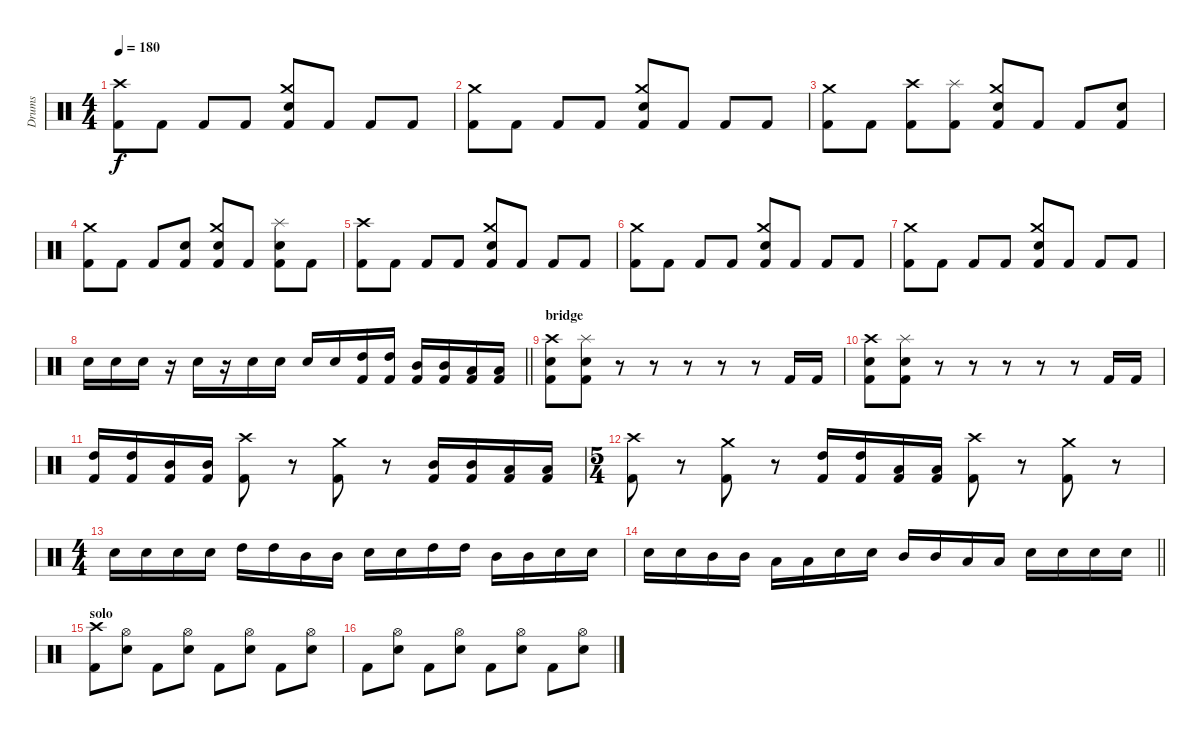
\track ("Drums" "Drums") {instrument percussion}
\staff {score}
\articulation defaults
\ts (4 4)
\tempo 180
\clef neutral
\ks c
("Crash high (hit)" "Kick (hit) 2").8{dy f} "Kick (hit) 2".8 "Kick (hit) 2".8 "Kick (hit) 2".8 ("Crash medium (hit)" "Electric Snare (hit)" "Kick (hit) 2").8 "Kick (hit) 2".8 "Kick (hit) 2".8 "Kick (hit) 2".8 |
("Crash medium (hit)" "Kick (hit) 2").8 "Kick (hit) 2".8 "Kick (hit) 2".8 "Kick (hit) 2".8 ("Crash medium (hit)" "Electric Snare (hit)" "Kick (hit) 2").8 "Kick (hit) 2".8 "Kick (hit) 2".8 "Kick (hit) 2".8 |
("Crash medium (hit)" "Kick (hit) 2").8 "Kick (hit) 2".8 ("Crash high (hit)" "Kick (hit) 2").8 ("Splash (hit)" "Kick (hit) 2").8 ("Crash medium (hit)" "Electric Snare (hit)" "Kick (hit) 2").8 "Kick (hit) 2".8 "Kick (hit) 2".8 ("Electric Snare (hit)" "Kick (hit) 2").8 |
("Crash medium (hit)" "Kick (hit) 2").8 "Kick (hit) 2".8 "Kick (hit) 2".8 ("Electric Snare (hit)" "Kick (hit) 2").8 ("Crash medium (hit)" "Electric Snare (hit)" "Kick (hit) 2").8 "Kick (hit) 2".8 ("Splash (hit)" "Electric Snare (hit)" "Kick (hit) 2").8 "Kick (hit) 2".8 |
("Crash high (hit)" "Kick (hit) 2").8 "Kick (hit) 2".8 "Kick (hit) 2".8 "Kick (hit) 2".8 ("Crash medium (hit)" "Electric Snare (hit)" "Kick (hit) 2").8 "Kick (hit) 2".8 "Kick (hit) 2".8 "Kick (hit) 2".8 |
("Crash medium (hit)" "Kick (hit) 2").8 "Kick (hit) 2".8 "Kick (hit) 2".8 "Kick (hit) 2".8 ("Crash medium (hit)" "Electric Snare (hit)" "Kick (hit) 2").8 "Kick (hit) 2".8 "Kick (hit) 2".8 "Kick (hit) 2".8 |
("Crash medium (hit)" "Kick (hit) 2").8 "Kick (hit) 2".8 "Kick (hit) 2".8 "Kick (hit) 2".8 ("Crash medium (hit)" "Electric Snare (hit)" "Kick (hit) 2").8 "Kick (hit) 2".8 "Kick (hit) 2".8 "Kick (hit) 2".8 |
\barLineRight lightlight "Electric Snare (hit)".16 "Electric Snare (hit)".16 "Electric Snare (hit)".16
r.16 "Electric Snare (hit)".16 r.16 "Electric Snare (hit)".16 "Electric Snare (hit)".16 "Electric Snare (hit)".16 "Electric Snare (hit)".16 ("High Tom (hit)" "Kick (hit) 2").16 ("High Tom (hit)" "Kick (hit) 2").16 ("Mid Tom (hit)" "Kick (hit) 2").16 ("Mid Tom (hit)" "Kick (hit) 2").16 ("Low Tom (hit)" "Kick (hit) 2").16 ("Low Tom (hit)" "Kick (hit) 2").16 |
\section ("" "bridge")
("Crash high (hit)" "Electric Snare (hit)" "Kick (hit) 2").8 ("Splash (hit)" "Electric Snare (hit)" "Kick (hit) 2").8 r.8 r.8 r.8 r.8 r.8 "Kick (hit) 2".16 "Kick (hit) 2".16 |
("Crash high (hit)" "Electric Snare (hit)" "Kick (hit) 2").8 ("Splash (hit)" "Electric Snare (hit)" "Kick (hit) 2").8 r.8 r.8 r.8 r.8 r.8 "Kick (hit) 2".16 "Kick (hit) 2".16 |
("High Tom (hit)" "Kick (hit) 2").16 ("High Tom (hit)" "Kick (hit) 2").16 ("Mid Tom (hit)" "Kick (hit) 2").16 ("Mid Tom (hit)" "Kick (hit) 2").16 ("Crash high (hit)" "Kick (hit) 2").8 r.8{volume 0} ("Crash medium (hit)" "Kick (hit) 2").8{volume 13} r.8{volume 0} ("Mid Tom (hit)" "Kick (hit) 2").16{volume 16} ("Mid Tom (hit)" "Kick (hit) 2").16 ("Low Tom (hit)" "Kick (hit) 2").16 ("Low Tom (hit)" "Kick (hit) 2").16 |
\ts (5 4)
("Crash high (hit)" "Kick (hit) 2").8 r.8{volume 0} ("Crash medium (hit)" "Kick (hit) 2").8{volume 13} r.8{volume 0} ("High Tom (hit)" "Kick (hit) 2").16{volume 16} ("High Tom (hit)" "Kick (hit) 2").16 ("Low Tom (hit)" "Kick (hit) 2").16 ("Low Tom (hit)" "Kick (hit) 2").16 ("Crash high (hit)" "Kick (hit) 2").8 r.8{volume 0} ("Crash medium (hit)" "Kick (hit) 2").8{volume 13} r.8{volume 0} |
\ts (4 4)
"Electric Snare (hit)".16{volume 16} "Electric Snare (hit)".16 "Electric Snare (hit)".16 "Electric Snare (hit)".16 "High Tom (hit)".16 "High Tom (hit)".16 "Mid Tom (hit)".16 "Mid Tom (hit)".16 "Electric Snare (hit)".16 "Electric Snare (hit)".16 "High Tom (hit)".16 "High Tom (hit)".16 "Mid Tom (hit)".16 "Mid Tom (hit)".16 "Electric Snare (hit)".16 "Electric Snare (hit)".16 |
\barLineRight lightlight "Electric Snare (hit)".16 "Electric Snare (hit)".16 "Mid Tom (hit)".16 "Mid Tom (hit)".16 "Low Tom (hit)".16 "Low Tom (hit)".16 "Electric Snare (hit)".16 "Electric Snare (hit)".16 "Mid Tom (hit)".16 "Mid Tom (hit)".16 "Low Tom (hit)".16 "Low Tom (hit)".16 "Electric Snare (hit)".16 "Electric Snare (hit)".16 "Electric Snare (hit)".16 "Electric Snare (hit)".16
|
\section ("" "solo")
("Crash high (hit)" "Kick (hit) 2").8{volume 16} ("Hi-Hat (open)" "Electric Snare (hit)").8 "Kick (hit) 2".8 ("Hi-Hat (open)" "Electric Snare (hit)").8 "Kick (hit) 2".8 ("Hi-Hat (open)" "Electric Snare (hit)").8 "Kick (hit) 2".8 ("Hi-Hat (open)" "Electric Snare (hit)").8 |
"Kick (hit) 2".8 ("Hi-Hat (open)" "Electric Snare (hit)").8 "Kick (hit) 2".8 ("Hi-Hat (open)" "Electric Snare (hit)").8 "Kick (hit) 2".8 ("Hi-Hat (open)" "Electric Snare (hit)").8 "Kick (hit) 2".8 ("Hi-Hat (open)" "Electric Snare (hit)").8
